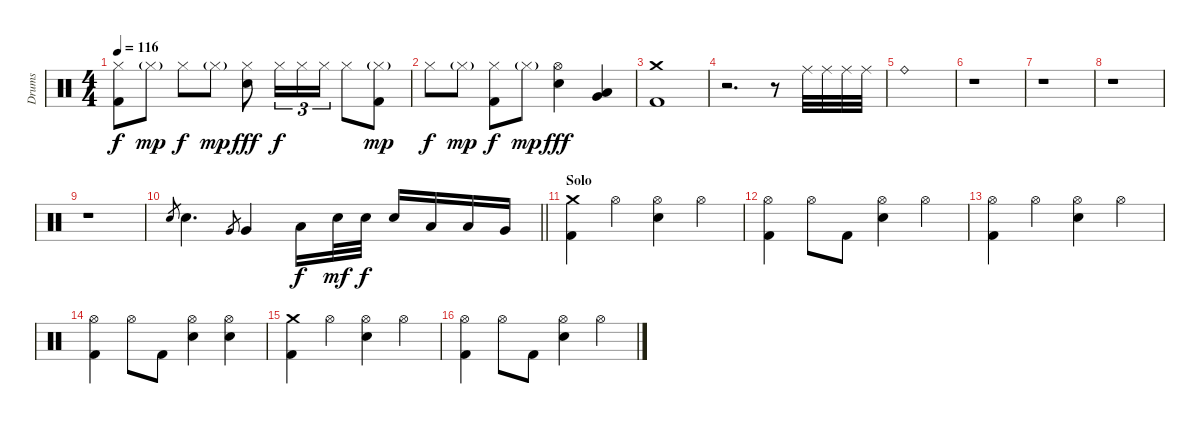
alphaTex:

\track ("Drums" "Drums") {instrument percussion}
\staff {score}
\articulation defaults
\ts (4 4)
\tempo 116
\clef neutral
\ks c
("Hi-Hat (closed)" "Kick (hit) 2").8{dy f} "Hi-Hat (closed)"{g}.8{dy mp} "Hi-Hat (closed)".8{dy f} "Hi-Hat (closed)"{g}.8{dy mp} ("Hi-Hat (closed)" "Electric Snare (hit)").8{dy fff} "Hi-Hat (closed)".16{tu (3 2) dy f} "Hi-Hat (closed)".16{tu (3 2)} "Hi-Hat (closed)".16{tu (3 2)} "Hi-Hat (closed)".8 ("Hi-Hat (closed)"{g} "Kick (hit) 2").8{dy mp} |
"Hi-Hat (closed)".8{dy f} "Hi-Hat (closed)"{g}.8{dy mp} ("Hi-Hat (closed)" "Kick (hit) 2").8{dy f} "Hi-Hat (closed)"{g}.8{dy mp} ("Hi-Hat (open)" "Electric Snare (hit)").4{dy fff} ("Low Tom (hit)" "Very Low Tom (hit)").4 |
("Crash medium (hit)" "Kick (hit) 2").1 |
r.2{d} r.8 "Ride (middle)".32 "Ride (middle)".32 "Ride (middle)".32 "Ride (middle)".32 |
"Ride (bell)".1 |
r.1 |
r.1 |
r.1 |
r.1 |
\barLineRight lightlight "Electric Snare (hit)".8{gr} "Electric Snare (hit)".4{d} "Very Low Tom (hit)".8{gr} "Very Low Tom (hit)".4 "Low Tom (hit)".16{dy f} "Electric Snare (hit)".32{dy mf} "Electric Snare (hit)".32{dy f} "Electric Snare (hit)".16 "Low Tom (hit)".16 "Low Tom (hit)".16 "Very Low Tom (hit)".16
|
\section ("" "Solo")
("Crash medium (hit)" "Kick (hit) 2").4 "Hi-Hat (open)".4 ("Hi-Hat (open)" "Electric Snare (hit)").4 "Hi-Hat (open)".4 |
("Hi-Hat (open)" "Kick (hit) 2").4 "Hi-Hat (open)".8 "Kick (hit) 2".8 ("Hi-Hat (open)" "Electric Snare (hit)").4 "Hi-Hat (open)".4 |
("Hi-Hat (open)" "Kick (hit) 2").4 "Hi-Hat (open)".4 ("Hi-Hat (open)" "Electric Snare (hit)").4 "Hi-Hat (open)".4 |
("Hi-Hat (open)" "Kick (hit) 2").4 "Hi-Hat (open)".8 "Kick (hit) 2".8 ("Hi-Hat (open)" "Electric Snare (hit)").4 ("Hi-Hat (open)" "Electric Snare (hit)").4 |
("Crash medium (hit)" "Kick (hit) 2").4 "Hi-Hat (open)".4 ("Hi-Hat (open)" "Electric Snare (hit)").4 "Hi-Hat (open)".4 |
("Hi-Hat (open)" "Kick (hit) 2").4 "Hi-Hat (open)".8 "Kick (hit) 2".8 ("Hi-Hat (open)" "Electric Snare (hit)").4 "Hi-Hat (open)".4
